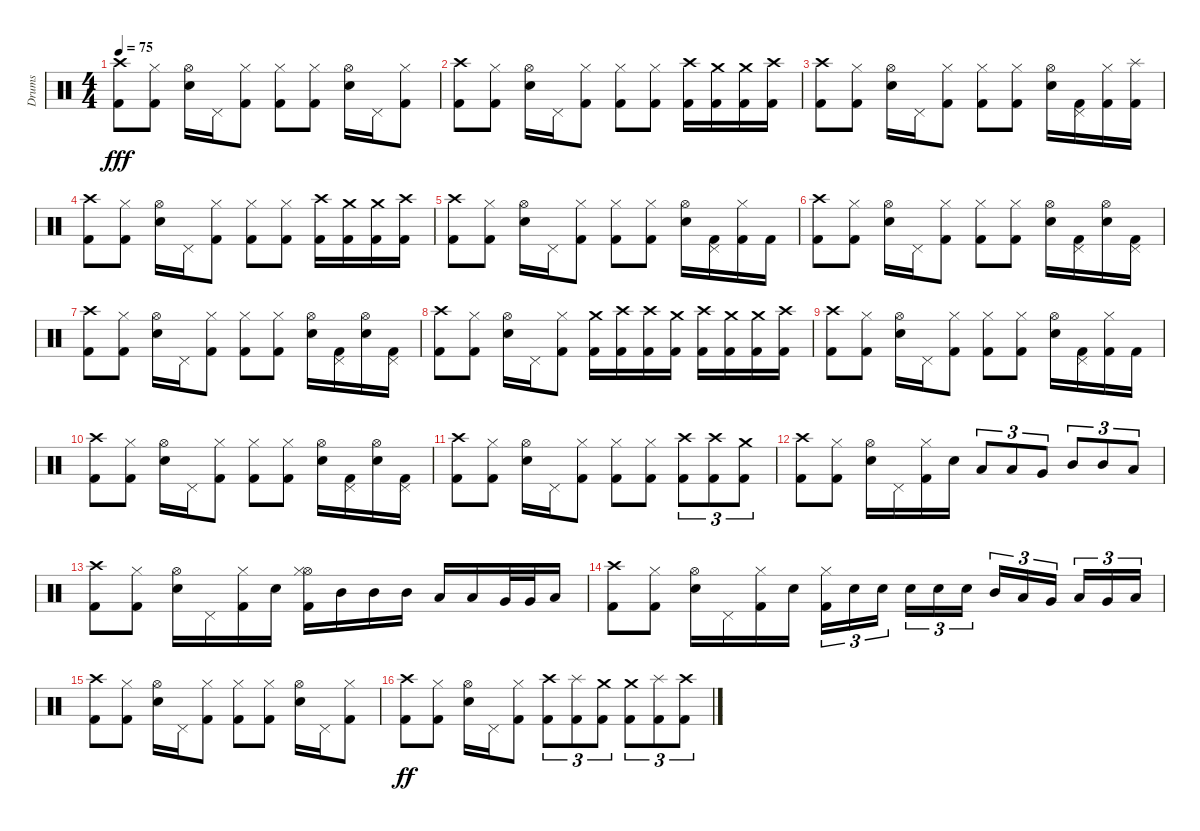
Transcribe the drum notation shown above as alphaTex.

\track ("Drums" "Drums") {instrument percussion}
\staff {score}
\articulation defaults
\ts (4 4)
\tempo 75
\clef neutral
\ks c
("Crash high (hit)" "Kick (hit) 2").8{dy fff} ("Hi-Hat (closed)" "Kick (hit) 2").8 ("Hi-Hat (open)" "Snare (hit) 2").16 "Pedal Hi-Hat (hit)".16 ("Hi-Hat (closed)" "Kick (hit) 2").8 ("Hi-Hat (closed)" "Kick (hit) 2").8 ("Hi-Hat (closed)" "Kick (hit) 2").8 ("Hi-Hat (open)" "Snare (hit) 2").16 "Pedal Hi-Hat (hit)".16 ("Hi-Hat (closed)" "Kick (hit) 2").8 |
("Crash high (hit)" "Kick (hit) 2").8 ("Hi-Hat (closed)" "Kick (hit) 2").8 ("Hi-Hat (open)" "Snare (hit) 2").16 "Pedal Hi-Hat (hit)".16 ("Hi-Hat (closed)" "Kick (hit) 2").8 ("Hi-Hat (closed)" "Kick (hit) 2").8 ("Hi-Hat (closed)" "Kick (hit) 2").8 ("Crash high (hit)" "Kick (hit) 2").16 ("Crash medium (hit)" "Kick (hit) 2").16 ("Crash medium (hit)" "Kick (hit) 2").16 ("Crash high (hit)" "Kick (hit) 2").16 |
("Crash high (hit)" "Kick (hit) 2").8 ("Hi-Hat (closed)" "Kick (hit) 2").8 ("Hi-Hat (open)" "Snare (hit) 2").16 "Pedal Hi-Hat (hit)".16 ("Hi-Hat (closed)" "Kick (hit) 2").8 ("Hi-Hat (closed)" "Kick (hit) 2").8 ("Hi-Hat (closed)" "Kick (hit) 2").8 ("Hi-Hat (open)" "Snare (hit) 2").16 ("Pedal Hi-Hat (hit)" "Kick (hit) 2").16 ("Hi-Hat (closed)" "Kick (hit) 2").16 ("Splash (hit)" "Kick (hit) 2").16 |
("Crash high (hit)" "Kick (hit) 2").8 ("Hi-Hat (closed)" "Kick (hit) 2").8 ("Hi-Hat (open)" "Snare (hit) 2").16 "Pedal Hi-Hat (hit)".16 ("Hi-Hat (closed)" "Kick (hit) 2").8 ("Hi-Hat (closed)" "Kick (hit) 2").8 ("Hi-Hat (closed)" "Kick (hit) 2").8 ("Crash high (hit)" "Kick (hit) 2").16 ("Crash medium (hit)" "Kick (hit) 2").16 ("Crash medium (hit)" "Kick (hit) 2").16 ("Crash high (hit)" "Kick (hit) 2").16 |
("Crash high (hit)" "Kick (hit) 2").8 ("Hi-Hat (closed)" "Kick (hit) 2").8 ("Hi-Hat (open)" "Snare (hit) 2").16 "Pedal Hi-Hat (hit)".16 ("Hi-Hat (closed)" "Kick (hit) 2").8 ("Hi-Hat (closed)" "Kick (hit) 2").8 ("Hi-Hat (closed)" "Kick (hit) 2").8 ("Hi-Hat (open)" "Snare (hit) 2").16 ("Pedal Hi-Hat (hit)" "Kick (hit) 2").16 ("Hi-Hat (closed)" "Kick (hit) 2").16 "Kick (hit) 2".16 |
("Crash high (hit)" "Kick (hit) 2").8 ("Hi-Hat (closed)" "Kick (hit) 2").8 ("Hi-Hat (open)" "Snare (hit) 2").16 "Pedal Hi-Hat (hit)".16 ("Hi-Hat (closed)" "Kick (hit) 2").8 ("Hi-Hat (closed)" "Kick (hit) 2").8 ("Hi-Hat (closed)" "Kick (hit) 2").8 ("Hi-Hat (open)" "Snare (hit) 2").16 ("Pedal Hi-Hat (hit)" "Kick (hit) 2").16 ("Hi-Hat (open)" "Snare (hit) 2").16 ("Pedal Hi-Hat (hit)" "Kick (hit) 2").16 |
("Crash high (hit)" "Kick (hit) 2").8 ("Hi-Hat (closed)" "Kick (hit) 2").8 ("Hi-Hat (open)" "Snare (hit) 2").16 "Pedal Hi-Hat (hit)".16 ("Hi-Hat (closed)" "Kick (hit) 2").8 ("Hi-Hat (closed)" "Kick (hit) 2").8 ("Hi-Hat (closed)" "Kick (hit) 2").8 ("Hi-Hat (open)" "Snare (hit) 2").16 ("Pedal Hi-Hat (hit)" "Kick (hit) 2").16 ("Hi-Hat (open)" "Snare (hit) 2").16 ("Pedal Hi-Hat (hit)" "Kick (hit) 2").16 |
("Crash high (hit)" "Kick (hit) 2").8 ("Hi-Hat (closed)" "Kick (hit) 2").8 ("Hi-Hat (open)" "Snare (hit) 2").16 "Pedal Hi-Hat (hit)".16 ("Hi-Hat (closed)" "Kick (hit) 2").8 ("Crash medium (hit)" "Kick (hit) 2").16 ("Crash high (hit)" "Kick (hit) 2").16 ("Crash high (hit)" "Kick (hit) 2").16 ("Crash medium (hit)" "Kick (hit) 2").16 ("Crash high (hit)" "Kick (hit) 2").16 ("Crash medium (hit)" "Kick (hit) 2").16 ("Crash medium (hit)" "Kick (hit) 2").16 ("Crash high (hit)" "Kick (hit) 2").16 |
("Crash high (hit)" "Kick (hit) 2").8 ("Hi-Hat (closed)" "Kick (hit) 2").8 ("Hi-Hat (open)" "Snare (hit) 2").16 "Pedal Hi-Hat (hit)".16 ("Hi-Hat (closed)" "Kick (hit) 2").8 ("Hi-Hat (closed)" "Kick (hit) 2").8 ("Hi-Hat (closed)" "Kick (hit) 2").8 ("Hi-Hat (open)" "Snare (hit) 2").16 ("Pedal Hi-Hat (hit)" "Kick (hit) 2").16 ("Hi-Hat (closed)" "Kick (hit) 2").16 "Kick (hit) 2".16 |
("Crash high (hit)" "Kick (hit) 2").8 ("Hi-Hat (closed)" "Kick (hit) 2").8 ("Hi-Hat (open)" "Snare (hit) 2").16 "Pedal Hi-Hat (hit)".16 ("Hi-Hat (closed)" "Kick (hit) 2").8 ("Hi-Hat (closed)" "Kick (hit) 2").8 ("Hi-Hat (closed)" "Kick (hit) 2").8 ("Hi-Hat (open)" "Snare (hit) 2").16 ("Pedal Hi-Hat (hit)" "Kick (hit) 2").16 ("Hi-Hat (open)" "Snare (hit) 2").16 ("Pedal Hi-Hat (hit)" "Kick (hit) 2").16 |
("Crash high (hit)" "Kick (hit) 2").8 ("Hi-Hat (closed)" "Kick (hit) 2").8 ("Hi-Hat (open)" "Snare (hit) 2").16 "Pedal Hi-Hat (hit)".16 ("Hi-Hat (closed)" "Kick (hit) 2").8 ("Hi-Hat (closed)" "Kick (hit) 2").8 ("Hi-Hat (closed)" "Kick (hit) 2").8 ("Crash high (hit)" "Kick (hit) 2").8{tu (3 2)} ("Crash high (hit)" "Kick (hit) 2").8{tu (3 2)} ("Crash medium (hit)" "Kick (hit) 2").8{tu (3 2)} |
("Crash high (hit)" "Kick (hit) 2").8 ("Hi-Hat (closed)" "Kick (hit) 2").8 ("Hi-Hat (open)" "Snare (hit) 2").16 "Pedal Hi-Hat (hit)".16 ("Hi-Hat (closed)" "Kick (hit) 2").16 "Snare (hit) 2".16 "Low Tom (hit)".8{tu (3 2)} "Low Tom (hit)".8{tu (3 2)} "Very Low Tom (hit)".8{tu (3 2)} "Mid Tom (hit)".8{tu (3 2)} "Mid Tom (hit)".8{tu (3 2)} "Low Tom (hit)".8{tu (3 2)} |
("Crash high (hit)" "Kick (hit) 2").8 ("Hi-Hat (closed)" "Kick (hit) 2").8 ("Hi-Hat (open)" "Snare (hit) 2").16 "Pedal Hi-Hat (hit)".16 ("Hi-Hat (closed)" "Kick (hit) 2").16 "Snare (hit) 2".16 ("Hi-Hat (open)" "Hi-Hat (closed)" "Kick (hit) 2").16 "Mid Tom (hit)".16 "Mid Tom (hit)".16 "Mid Tom (hit)".16 "Low Tom (hit)".16 "Low Tom (hit)".16 "Very Low Tom (hit)".32 "Very Low Tom (hit)".32 "Low Floor Tom (hit)".16 |
("Crash high (hit)" "Kick (hit) 2").8 ("Hi-Hat (closed)" "Kick (hit) 2").8 ("Hi-Hat (open)" "Snare (hit) 2").16 "Pedal Hi-Hat (hit)".16 ("Hi-Hat (closed)" "Kick (hit) 2").16 "Snare (hit) 2".16 ("Hi-Hat (closed)" "Kick (hit) 2").16{tu (3 2)} "Snare (hit) 2".16{tu (3 2)} "Snare (hit) 2".16{tu (3 2) beam splitsecondary} "Snare (hit) 2".16{tu (3 2)} "Snare (hit) 2".16{tu (3 2)} "Snare (hit) 2".16{tu (3 2)} "Mid Tom (hit)".16{tu (3 2)} "Low Tom (hit)".16{tu (3 2)} "Very Low Tom (hit)".16{tu (3 2) beam splitsecondary} "Low Tom (hit)".16{tu (3 2)} "Very Low Tom (hit)".16{tu (3 2)} "Low Floor Tom (hit)".16{tu (3 2)} |
("Crash high (hit)" "Kick (hit) 2").8 ("Hi-Hat (closed)" "Kick (hit) 2").8 ("Hi-Hat (open)" "Snare (hit) 2").16 "Pedal Hi-Hat (hit)".16 ("Hi-Hat (closed)" "Kick (hit) 2").8 ("Hi-Hat (closed)" "Kick (hit) 2").8 ("Hi-Hat (closed)" "Kick (hit) 2").8 ("Hi-Hat (open)" "Snare (hit) 2").16 "Pedal Hi-Hat (hit)".16 ("Hi-Hat (closed)" "Kick (hit) 2").8 |
("Crash high (hit)" "Kick (hit) 2").8{dy ff} ("Hi-Hat (closed)" "Kick (hit) 2").8 ("Hi-Hat (open)" "Snare (hit) 2").16 "Pedal Hi-Hat (hit)".16 ("Hi-Hat (closed)" "Kick (hit) 2").8 ("Crash high (hit)" "Kick (hit) 2").8{tu (3 2)} ("Splash (hit)" "Kick (hit) 2").8{tu (3 2)} ("Crash medium (hit)" "Kick (hit) 2").8{tu (3 2)} ("Crash medium (hit)" "Kick (hit) 2").8{tu (3 2)} ("Splash (hit)" "Kick (hit) 2").8{tu (3 2)} ("Crash high (hit)" "Kick (hit) 2").8{tu (3 2)}
